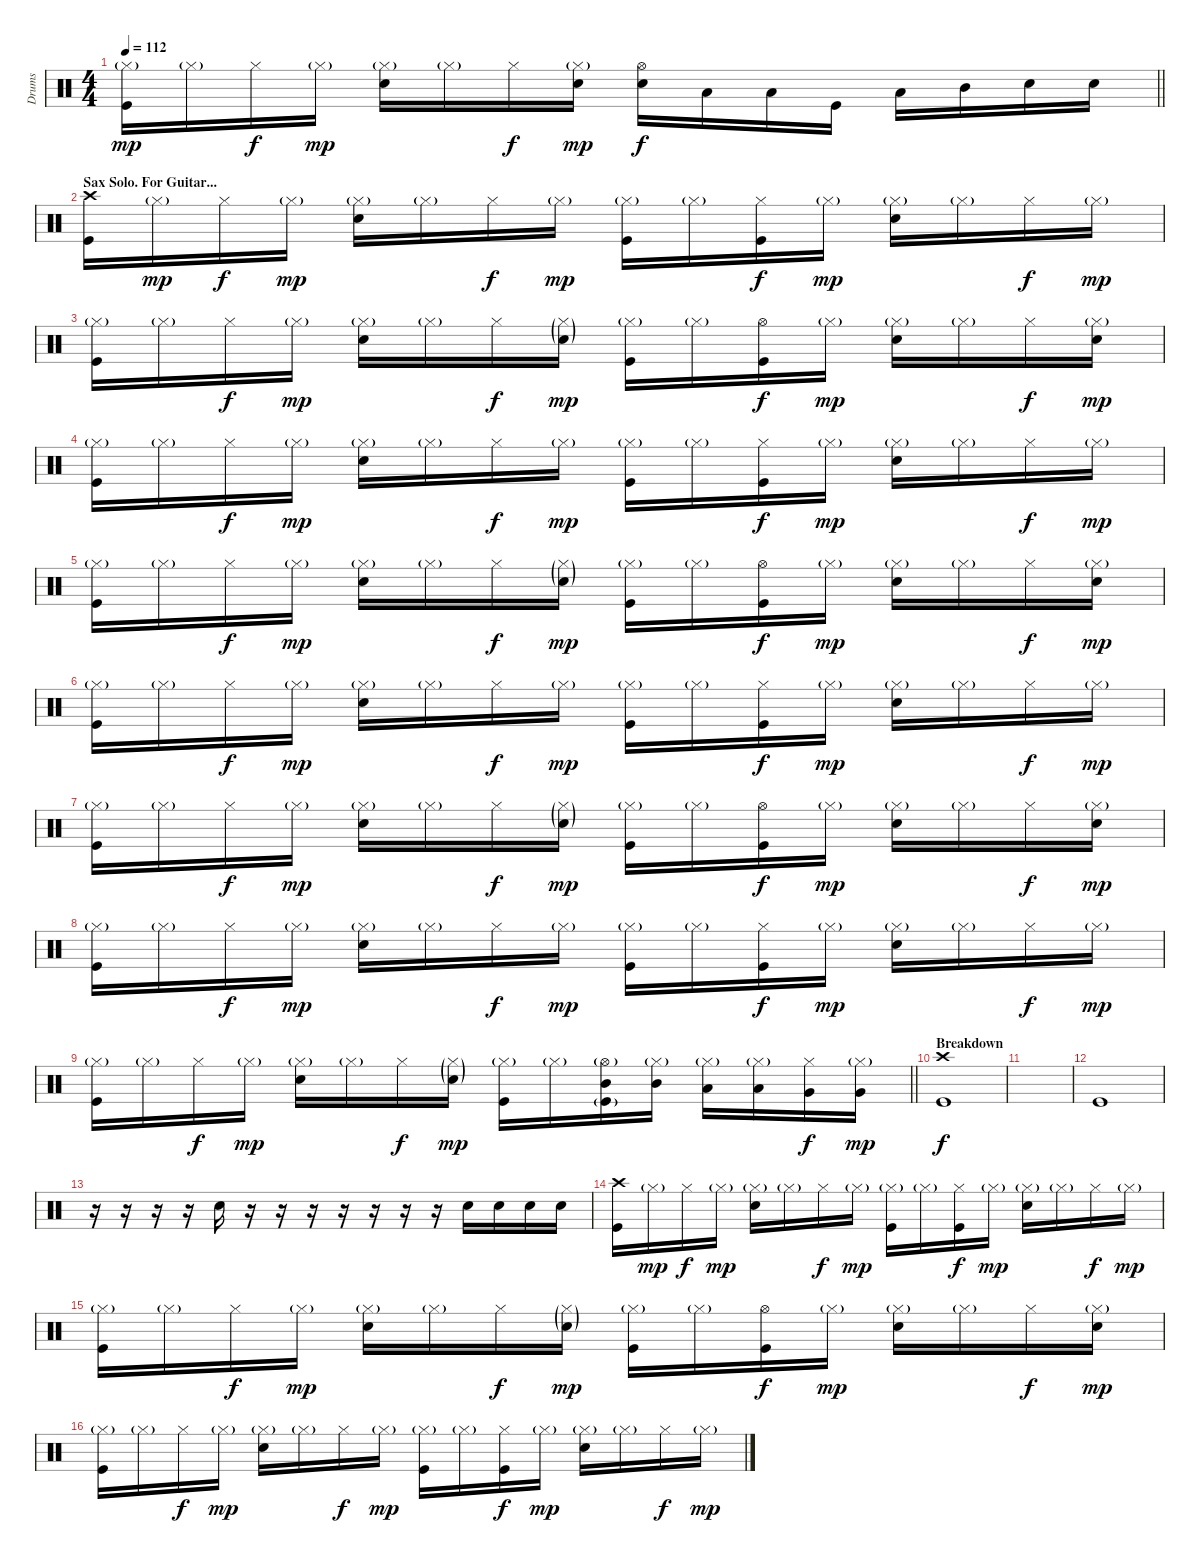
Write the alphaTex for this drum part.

\track ("Drums" "Drums") {instrument percussion}
\staff {score}
\articulation defaults
\ts (4 4)
\tempo 112
\clef neutral
\barLineRight lightlight
\ks c
("Hi-Hat (closed)"{g} "Kick (hit)").16{dy mp} "Hi-Hat (closed)"{g}.16 "Hi-Hat (closed)".16{dy f} "Hi-Hat (closed)"{g}.16{dy mp} ("Hi-Hat (closed)"{g} "Snare (hit) 2").16 "Hi-Hat (closed)"{g}.16 "Hi-Hat (closed)".16{dy f} ("Hi-Hat (closed)"{g} "Snare (hit) 2").16{dy mp} ("Hi-Hat (open)" "Snare (hit) 2").16{dy f} "Low Tom (hit)".16 "Low Tom (hit)".16 "Kick (hit)".16 "Low Tom (hit)".16 "Mid Tom (hit)".16 "Snare (hit) 2".16 "Snare (hit) 2".16 |
\section ("" "Sax Solo. For Guitar...")
("Crash high (hit)" "Kick (hit)").16 "Hi-Hat (closed)"{g}.16{dy mp} "Hi-Hat (closed)".16{dy f} "Hi-Hat (closed)"{g}.16{dy mp} ("Hi-Hat (closed)"{g} "Snare (hit) 2").16 "Hi-Hat (closed)"{g}.16 "Hi-Hat (closed)".16{dy f} "Hi-Hat (closed)"{g}.16{dy mp} ("Hi-Hat (closed)"{g} "Kick (hit)").16 "Hi-Hat (closed)"{g}.16 ("Hi-Hat (closed)" "Kick (hit)").16{dy f} "Hi-Hat (closed)"{g}.16{dy mp} ("Hi-Hat (closed)"{g} "Snare (hit) 2").16 "Hi-Hat (closed)"{g}.16 "Hi-Hat (closed)".16{dy f} "Hi-Hat (closed)"{g}.16{dy mp} |
("Hi-Hat (closed)"{g} "Kick (hit)").16 "Hi-Hat (closed)"{g}.16 "Hi-Hat (closed)".16{dy f} "Hi-Hat (closed)"{g}.16{dy mp} ("Hi-Hat (closed)"{g} "Snare (hit) 2").16 "Hi-Hat (closed)"{g}.16 "Hi-Hat (closed)".16{dy f} ("Hi-Hat (closed)"{g} "Snare (hit) 2"{g}).16{dy mp} ("Hi-Hat (closed)"{g} "Kick (hit)").16 "Hi-Hat (closed)"{g}.16 ("Hi-Hat (open)" "Kick (hit)").16{dy f} "Hi-Hat (closed)"{g}.16{dy mp} ("Hi-Hat (closed)"{g} "Snare (hit) 2").16 "Hi-Hat (closed)"{g}.16 "Hi-Hat (closed)".16{dy f} ("Hi-Hat (closed)"{g} "Snare (hit) 2").16{dy mp} |
("Hi-Hat (closed)"{g} "Kick (hit)").16 "Hi-Hat (closed)"{g}.16 "Hi-Hat (closed)".16{dy f} "Hi-Hat (closed)"{g}.16{dy mp} ("Hi-Hat (closed)"{g} "Snare (hit) 2").16 "Hi-Hat (closed)"{g}.16 "Hi-Hat (closed)".16{dy f} "Hi-Hat (closed)"{g}.16{dy mp} ("Hi-Hat (closed)"{g} "Kick (hit)").16 "Hi-Hat (closed)"{g}.16 ("Hi-Hat (closed)" "Kick (hit)").16{dy f} "Hi-Hat (closed)"{g}.16{dy mp} ("Hi-Hat (closed)"{g} "Snare (hit) 2").16 "Hi-Hat (closed)"{g}.16 "Hi-Hat (closed)".16{dy f} "Hi-Hat (closed)"{g}.16{dy mp} |
("Hi-Hat (closed)"{g} "Kick (hit)").16 "Hi-Hat (closed)"{g}.16 "Hi-Hat (closed)".16{dy f} "Hi-Hat (closed)"{g}.16{dy mp} ("Hi-Hat (closed)"{g} "Snare (hit) 2").16 "Hi-Hat (closed)"{g}.16 "Hi-Hat (closed)".16{dy f} ("Hi-Hat (closed)"{g} "Snare (hit) 2"{g}).16{dy mp} ("Hi-Hat (closed)"{g} "Kick (hit)").16 "Hi-Hat (closed)"{g}.16 ("Hi-Hat (open)" "Kick (hit)").16{dy f} "Hi-Hat (closed)"{g}.16{dy mp} ("Hi-Hat (closed)"{g} "Snare (hit) 2").16 "Hi-Hat (closed)"{g}.16 "Hi-Hat (closed)".16{dy f} ("Hi-Hat (closed)"{g} "Snare (hit) 2").16{dy mp} |
("Hi-Hat (closed)"{g} "Kick (hit)").16 "Hi-Hat (closed)"{g}.16 "Hi-Hat (closed)".16{dy f} "Hi-Hat (closed)"{g}.16{dy mp} ("Hi-Hat (closed)"{g} "Snare (hit) 2").16 "Hi-Hat (closed)"{g}.16 "Hi-Hat (closed)".16{dy f} "Hi-Hat (closed)"{g}.16{dy mp} ("Hi-Hat (closed)"{g} "Kick (hit)").16 "Hi-Hat (closed)"{g}.16 ("Hi-Hat (closed)" "Kick (hit)").16{dy f} "Hi-Hat (closed)"{g}.16{dy mp} ("Hi-Hat (closed)"{g} "Snare (hit) 2").16 "Hi-Hat (closed)"{g}.16 "Hi-Hat (closed)".16{dy f} "Hi-Hat (closed)"{g}.16{dy mp} |
("Hi-Hat (closed)"{g} "Kick (hit)").16 "Hi-Hat (closed)"{g}.16 "Hi-Hat (closed)".16{dy f} "Hi-Hat (closed)"{g}.16{dy mp} ("Hi-Hat (closed)"{g} "Snare (hit) 2").16 "Hi-Hat (closed)"{g}.16 "Hi-Hat (closed)".16{dy f} ("Hi-Hat (closed)"{g} "Snare (hit) 2"{g}).16{dy mp} ("Hi-Hat (closed)"{g} "Kick (hit)").16 "Hi-Hat (closed)"{g}.16 ("Hi-Hat (open)" "Kick (hit)").16{dy f} "Hi-Hat (closed)"{g}.16{dy mp} ("Hi-Hat (closed)"{g} "Snare (hit) 2").16 "Hi-Hat (closed)"{g}.16 "Hi-Hat (closed)".16{dy f} ("Hi-Hat (closed)"{g} "Snare (hit) 2").16{dy mp} |
("Hi-Hat (closed)"{g} "Kick (hit)").16 "Hi-Hat (closed)"{g}.16 "Hi-Hat (closed)".16{dy f} "Hi-Hat (closed)"{g}.16{dy mp} ("Hi-Hat (closed)"{g} "Snare (hit) 2").16 "Hi-Hat (closed)"{g}.16 "Hi-Hat (closed)".16{dy f} "Hi-Hat (closed)"{g}.16{dy mp} ("Hi-Hat (closed)"{g} "Kick (hit)").16 "Hi-Hat (closed)"{g}.16 ("Hi-Hat (closed)" "Kick (hit)").16{dy f} "Hi-Hat (closed)"{g}.16{dy mp} ("Hi-Hat (closed)"{g} "Snare (hit) 2").16 "Hi-Hat (closed)"{g}.16 "Hi-Hat (closed)".16{dy f} "Hi-Hat (closed)"{g}.16{dy mp} |
\barLineRight lightlight
("Hi-Hat (closed)"{g} "Kick (hit)").16 "Hi-Hat (closed)"{g}.16 "Hi-Hat (closed)".16{dy f} "Hi-Hat (closed)"{g}.16{dy mp} ("Hi-Hat (closed)"{g} "Snare (hit) 2").16 "Hi-Hat (closed)"{g}.16 "Hi-Hat (closed)".16{dy f} ("Hi-Hat (closed)"{g} "Snare (hit) 2"{g}).16{dy mp} ("Hi-Hat (closed)"{g} "Kick (hit)").16 "Hi-Hat (closed)"{g}.16 ("Hi-Hat (open)"{g} "Mid Tom (hit)" "Kick (hit)"{g}).16 ("Hi-Hat (closed)"{g} "Mid Tom (hit)").16 ("Hi-Hat (closed)"{g} "Low Tom (hit)").16 ("Hi-Hat (closed)"{g} "Low Tom (hit)").16 ("Hi-Hat (closed)" "Very Low Tom (hit)").16{dy f} ("Hi-Hat (closed)"{g} "Very Low Tom (hit)").16{dy mp} |
\section ("" "Breakdown")
("Crash high (hit)" "Kick (hit)").1{dy f} |
|
"Kick (hit)".1 |
r.16 r.16 r.16 r.16 "Snare (hit) 2".16 r.16 r.16 r.16 r.16 r.16 r.16 r.16 "Snare (hit) 2".16 "Snare (hit) 2".16 "Snare (hit) 2".16 "Snare (hit) 2".16 |
("Crash high (hit)" "Kick (hit)").16 "Hi-Hat (closed)"{g}.16{dy mp} "Hi-Hat (closed)".16{dy f} "Hi-Hat (closed)"{g}.16{dy mp} ("Hi-Hat (closed)"{g} "Snare (hit) 2").16 "Hi-Hat (closed)"{g}.16 "Hi-Hat (closed)".16{dy f} "Hi-Hat (closed)"{g}.16{dy mp} ("Hi-Hat (closed)"{g} "Kick (hit)").16 "Hi-Hat (closed)"{g}.16 ("Hi-Hat (closed)" "Kick (hit)").16{dy f} "Hi-Hat (closed)"{g}.16{dy mp} ("Hi-Hat (closed)"{g} "Snare (hit) 2").16 "Hi-Hat (closed)"{g}.16 "Hi-Hat (closed)".16{dy f} "Hi-Hat (closed)"{g}.16{dy mp} |
("Hi-Hat (closed)"{g} "Kick (hit)").16 "Hi-Hat (closed)"{g}.16 "Hi-Hat (closed)".16{dy f} "Hi-Hat (closed)"{g}.16{dy mp} ("Hi-Hat (closed)"{g} "Snare (hit) 2").16 "Hi-Hat (closed)"{g}.16 "Hi-Hat (closed)".16{dy f} ("Hi-Hat (closed)"{g} "Snare (hit) 2"{g}).16{dy mp} ("Hi-Hat (closed)"{g} "Kick (hit)").16 "Hi-Hat (closed)"{g}.16 ("Hi-Hat (open)" "Kick (hit)").16{dy f} "Hi-Hat (closed)"{g}.16{dy mp} ("Hi-Hat (closed)"{g} "Snare (hit) 2").16 "Hi-Hat (closed)"{g}.16 "Hi-Hat (closed)".16{dy f} ("Hi-Hat (closed)"{g} "Snare (hit) 2").16{dy mp} |
("Hi-Hat (closed)"{g} "Kick (hit)").16 "Hi-Hat (closed)"{g}.16 "Hi-Hat (closed)".16{dy f} "Hi-Hat (closed)"{g}.16{dy mp} ("Hi-Hat (closed)"{g} "Snare (hit) 2").16 "Hi-Hat (closed)"{g}.16 "Hi-Hat (closed)".16{dy f} "Hi-Hat (closed)"{g}.16{dy mp} ("Hi-Hat (closed)"{g} "Kick (hit)").16 "Hi-Hat (closed)"{g}.16 ("Hi-Hat (closed)" "Kick (hit)").16{dy f} "Hi-Hat (closed)"{g}.16{dy mp} ("Hi-Hat (closed)"{g} "Snare (hit) 2").16 "Hi-Hat (closed)"{g}.16 "Hi-Hat (closed)".16{dy f} "Hi-Hat (closed)"{g}.16{dy mp}
